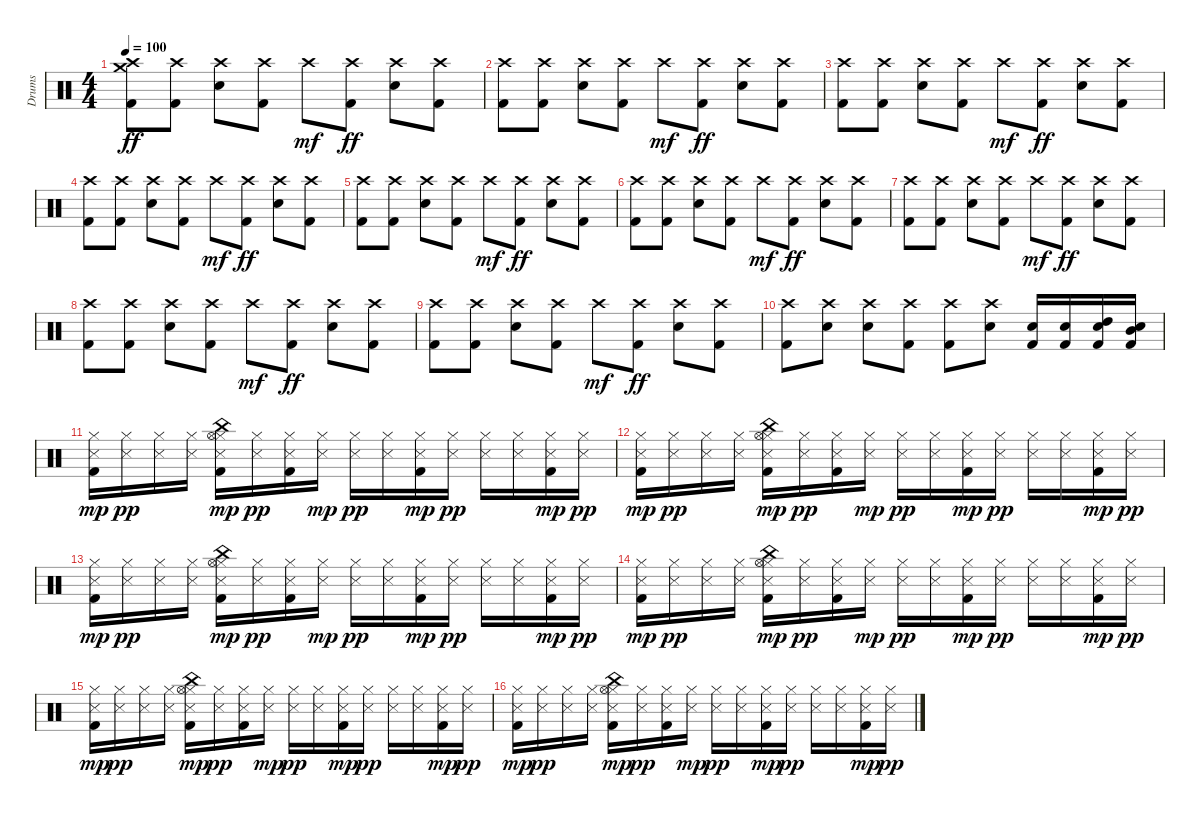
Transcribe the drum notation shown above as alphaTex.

\track ("Drums" "Drums") {instrument percussion}
\staff {score}
\articulation defaults
\ts (4 4)
\tempo 100
\clef neutral
\ks c
("Crash high (hit)" "Crash medium (hit)" "Kick (hit) 2").8{dy ff} ("Crash high (hit)" "Kick (hit) 2").8 ("Crash high (hit)" "Electric Snare (hit)").8 ("Crash high (hit)" "Kick (hit) 2").8 "Crash high (hit)".8{dy mf} ("Crash high (hit)" "Kick (hit) 2").8{dy ff} ("Crash high (hit)" "Electric Snare (hit)").8 ("Crash high (hit)" "Kick (hit) 2").8 |
("Crash high (hit)" "Kick (hit) 2").8 ("Crash high (hit)" "Kick (hit) 2").8 ("Crash high (hit)" "Electric Snare (hit)").8 ("Crash high (hit)" "Kick (hit) 2").8 "Crash high (hit)".8{dy mf} ("Crash high (hit)" "Kick (hit) 2").8{dy ff} ("Crash high (hit)" "Electric Snare (hit)").8 ("Crash high (hit)" "Kick (hit) 2").8 |
("Crash high (hit)" "Kick (hit) 2").8 ("Crash high (hit)" "Kick (hit) 2").8 ("Crash high (hit)" "Electric Snare (hit)").8 ("Crash high (hit)" "Kick (hit) 2").8 "Crash high (hit)".8{dy mf} ("Crash high (hit)" "Kick (hit) 2").8{dy ff} ("Crash high (hit)" "Electric Snare (hit)").8 ("Crash high (hit)" "Kick (hit) 2").8 |
("Crash high (hit)" "Kick (hit) 2").8 ("Crash high (hit)" "Kick (hit) 2").8 ("Crash high (hit)" "Electric Snare (hit)").8 ("Crash high (hit)" "Kick (hit) 2").8 "Crash high (hit)".8{dy mf} ("Crash high (hit)" "Kick (hit) 2").8{dy ff} ("Crash high (hit)" "Electric Snare (hit)").8 ("Crash high (hit)" "Kick (hit) 2").8 |
("Crash high (hit)" "Kick (hit) 2").8 ("Crash high (hit)" "Kick (hit) 2").8 ("Crash high (hit)" "Electric Snare (hit)").8 ("Crash high (hit)" "Kick (hit) 2").8 "Crash high (hit)".8{dy mf} ("Crash high (hit)" "Kick (hit) 2").8{dy ff} ("Crash high (hit)" "Electric Snare (hit)").8 ("Crash high (hit)" "Kick (hit) 2").8 |
("Crash high (hit)" "Kick (hit) 2").8 ("Crash high (hit)" "Kick (hit) 2").8 ("Crash high (hit)" "Electric Snare (hit)").8 ("Crash high (hit)" "Kick (hit) 2").8 "Crash high (hit)".8{dy mf} ("Crash high (hit)" "Kick (hit) 2").8{dy ff} ("Crash high (hit)" "Electric Snare (hit)").8 ("Crash high (hit)" "Kick (hit) 2").8 |
("Crash high (hit)" "Kick (hit) 2").8 ("Crash high (hit)" "Kick (hit) 2").8 ("Crash high (hit)" "Electric Snare (hit)").8 ("Crash high (hit)" "Kick (hit) 2").8 "Crash high (hit)".8{dy mf} ("Crash high (hit)" "Kick (hit) 2").8{dy ff} ("Crash high (hit)" "Electric Snare (hit)").8 ("Crash high (hit)" "Kick (hit) 2").8 |
("Crash high (hit)" "Kick (hit) 2").8 ("Crash high (hit)" "Kick (hit) 2").8 ("Crash high (hit)" "Electric Snare (hit)").8 ("Crash high (hit)" "Kick (hit) 2").8 "Crash high (hit)".8{dy mf} ("Crash high (hit)" "Kick (hit) 2").8{dy ff} ("Crash high (hit)" "Electric Snare (hit)").8 ("Crash high (hit)" "Kick (hit) 2").8 |
("Crash high (hit)" "Kick (hit) 2").8 ("Crash high (hit)" "Kick (hit) 2").8 ("Crash high (hit)" "Electric Snare (hit)").8 ("Crash high (hit)" "Kick (hit) 2").8 "Crash high (hit)".8{dy mf} ("Crash high (hit)" "Kick (hit) 2").8{dy ff} ("Crash high (hit)" "Electric Snare (hit)").8 ("Crash high (hit)" "Kick (hit) 2").8 |
("Crash high (hit)" "Kick (hit) 2").8 ("Crash high (hit)" "Electric Snare (hit)").8 ("Crash high (hit)" "Electric Snare (hit)").8 ("Crash high (hit)" "Kick (hit) 2").8 ("Crash high (hit)" "Kick (hit) 2").8 ("Crash high (hit)" "Electric Snare (hit)").8 ("Electric Snare (hit)" "Kick (hit) 2").16 ("Electric Snare (hit)" "Kick (hit) 2").16 ("High Tom (hit)" "Electric Snare (hit)" "Kick (hit) 2").16 ("Mid Tom (hit)" "Electric Snare (hit)" "Kick (hit) 2").16 |
("Hi-Hat (closed)" "Snare (side stick) 3" "Kick (hit) 2").16{dy mp balance 4} ("Hi-Hat (closed)" "Snare (side stick) 3").16{dy pp} ("Hi-Hat (closed)" "Snare (side stick) 3").16 ("Hi-Hat (closed)" "Snare (side stick) 3").16 ("Hi-Hat (closed)" "China (hit)" "Hi-Hat (open)" "Snare (side stick) 3" "Kick (hit) 2").16{dy mp} ("Hi-Hat (closed)" "Snare (side stick) 3").16{dy pp} ("Hi-Hat (closed)" "Snare (side stick) 3" "Kick (hit) 2").16 ("Hi-Hat (closed)" "Snare (side stick) 3").16{dy mp} ("Hi-Hat (closed)" "Snare (side stick) 3").16{dy pp} ("Hi-Hat (closed)" "Snare (side stick) 3").16 ("Hi-Hat (closed)" "Snare (side stick) 3" "Kick (hit) 2").16{dy mp} ("Hi-Hat (closed)" "Snare (side stick) 3").16{dy pp} ("Hi-Hat (closed)" "Snare (side stick) 3").16 ("Hi-Hat (closed)" "Snare (side stick) 3").16 ("Hi-Hat (closed)" "Snare (side stick) 3" "Kick (hit) 2").16{dy mp} ("Hi-Hat (closed)" "Snare (side stick) 3").16{dy pp} |
("Hi-Hat (closed)" "Snare (side stick) 3" "Kick (hit) 2").16{dy mp} ("Hi-Hat (closed)" "Snare (side stick) 3").16{dy pp} ("Hi-Hat (closed)" "Snare (side stick) 3").16 ("Hi-Hat (closed)" "Snare (side stick) 3").16 ("Hi-Hat (closed)" "China (hit)" "Hi-Hat (open)" "Snare (side stick) 3" "Kick (hit) 2").16{dy mp} ("Hi-Hat (closed)" "Snare (side stick) 3").16{dy pp} ("Hi-Hat (closed)" "Snare (side stick) 3" "Kick (hit) 2").16 ("Hi-Hat (closed)" "Snare (side stick) 3").16{dy mp} ("Hi-Hat (closed)" "Snare (side stick) 3").16{dy pp} ("Hi-Hat (closed)" "Snare (side stick) 3").16 ("Hi-Hat (closed)" "Snare (side stick) 3" "Kick (hit) 2").16{dy mp} ("Hi-Hat (closed)" "Snare (side stick) 3").16{dy pp} ("Hi-Hat (closed)" "Snare (side stick) 3").16 ("Hi-Hat (closed)" "Snare (side stick) 3").16 ("Hi-Hat (closed)" "Snare (side stick) 3" "Kick (hit) 2").16{dy mp} ("Hi-Hat (closed)" "Snare (side stick) 3").16{dy pp} |
("Hi-Hat (closed)" "Snare (side stick) 3" "Kick (hit) 2").16{dy mp} ("Hi-Hat (closed)" "Snare (side stick) 3").16{dy pp} ("Hi-Hat (closed)" "Snare (side stick) 3").16 ("Hi-Hat (closed)" "Snare (side stick) 3").16 ("Hi-Hat (closed)" "China (hit)" "Hi-Hat (open)" "Snare (side stick) 3" "Kick (hit) 2").16{dy mp} ("Hi-Hat (closed)" "Snare (side stick) 3").16{dy pp} ("Hi-Hat (closed)" "Snare (side stick) 3" "Kick (hit) 2").16 ("Hi-Hat (closed)" "Snare (side stick) 3").16{dy mp} ("Hi-Hat (closed)" "Snare (side stick) 3").16{dy pp} ("Hi-Hat (closed)" "Snare (side stick) 3").16 ("Hi-Hat (closed)" "Snare (side stick) 3" "Kick (hit) 2").16{dy mp} ("Hi-Hat (closed)" "Snare (side stick) 3").16{dy pp} ("Hi-Hat (closed)" "Snare (side stick) 3").16 ("Hi-Hat (closed)" "Snare (side stick) 3").16 ("Hi-Hat (closed)" "Snare (side stick) 3" "Kick (hit) 2").16{dy mp} ("Hi-Hat (closed)" "Snare (side stick) 3").16{dy pp} |
("Hi-Hat (closed)" "Snare (side stick) 3" "Kick (hit) 2").16{dy mp} ("Hi-Hat (closed)" "Snare (side stick) 3").16{dy pp} ("Hi-Hat (closed)" "Snare (side stick) 3").16 ("Hi-Hat (closed)" "Snare (side stick) 3").16 ("Hi-Hat (closed)" "China (hit)" "Hi-Hat (open)" "Snare (side stick) 3" "Kick (hit) 2").16{dy mp} ("Hi-Hat (closed)" "Snare (side stick) 3").16{dy pp} ("Hi-Hat (closed)" "Snare (side stick) 3" "Kick (hit) 2").16 ("Hi-Hat (closed)" "Snare (side stick) 3").16{dy mp} ("Hi-Hat (closed)" "Snare (side stick) 3").16{dy pp} ("Hi-Hat (closed)" "Snare (side stick) 3").16 ("Hi-Hat (closed)" "Snare (side stick) 3" "Kick (hit) 2").16{dy mp} ("Hi-Hat (closed)" "Snare (side stick) 3").16{dy pp} ("Hi-Hat (closed)" "Snare (side stick) 3").16 ("Hi-Hat (closed)" "Snare (side stick) 3").16 ("Hi-Hat (closed)" "Snare (side stick) 3" "Kick (hit) 2").16{dy mp} ("Hi-Hat (closed)" "Snare (side stick) 3").16{dy pp} |
("Hi-Hat (closed)" "Snare (side stick) 3" "Kick (hit) 2").16{dy mp} ("Hi-Hat (closed)" "Snare (side stick) 3").16{dy pp} ("Hi-Hat (closed)" "Snare (side stick) 3").16 ("Hi-Hat (closed)" "Snare (side stick) 3").16 ("Hi-Hat (closed)" "China (hit)" "Hi-Hat (open)" "Snare (side stick) 3" "Kick (hit) 2").16{dy mp} ("Hi-Hat (closed)" "Snare (side stick) 3").16{dy pp} ("Hi-Hat (closed)" "Snare (side stick) 3" "Kick (hit) 2").16 ("Hi-Hat (closed)" "Snare (side stick) 3").16{dy mp} ("Hi-Hat (closed)" "Snare (side stick) 3").16{dy pp} ("Hi-Hat (closed)" "Snare (side stick) 3").16 ("Hi-Hat (closed)" "Snare (side stick) 3" "Kick (hit) 2").16{dy mp} ("Hi-Hat (closed)" "Snare (side stick) 3").16{dy pp} ("Hi-Hat (closed)" "Snare (side stick) 3").16 ("Hi-Hat (closed)" "Snare (side stick) 3").16 ("Hi-Hat (closed)" "Snare (side stick) 3" "Kick (hit) 2").16{dy mp} ("Hi-Hat (closed)" "Snare (side stick) 3").16{dy pp} |
("Hi-Hat (closed)" "Snare (side stick) 3" "Kick (hit) 2").16{dy mp} ("Hi-Hat (closed)" "Snare (side stick) 3").16{dy pp} ("Hi-Hat (closed)" "Snare (side stick) 3").16 ("Hi-Hat (closed)" "Snare (side stick) 3").16 ("Hi-Hat (closed)" "China (hit)" "Hi-Hat (open)" "Snare (side stick) 3" "Kick (hit) 2").16{dy mp} ("Hi-Hat (closed)" "Snare (side stick) 3").16{dy pp} ("Hi-Hat (closed)" "Snare (side stick) 3" "Kick (hit) 2").16 ("Hi-Hat (closed)" "Snare (side stick) 3").16{dy mp} ("Hi-Hat (closed)" "Snare (side stick) 3").16{dy pp} ("Hi-Hat (closed)" "Snare (side stick) 3").16 ("Hi-Hat (closed)" "Snare (side stick) 3" "Kick (hit) 2").16{dy mp} ("Hi-Hat (closed)" "Snare (side stick) 3").16{dy pp} ("Hi-Hat (closed)" "Snare (side stick) 3").16 ("Hi-Hat (closed)" "Snare (side stick) 3").16 ("Hi-Hat (closed)" "Snare (side stick) 3" "Kick (hit) 2").16{dy mp} ("Hi-Hat (closed)" "Snare (side stick) 3").16{dy pp}
